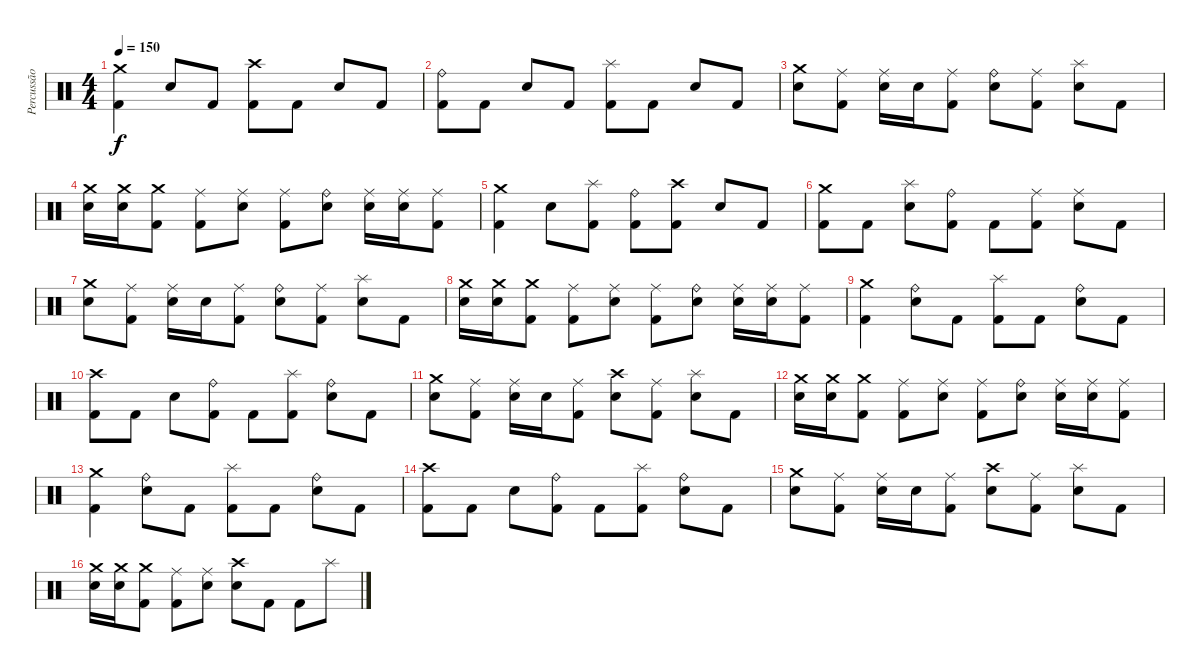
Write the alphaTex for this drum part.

\track ("Percussão" "Percussão") {instrument percussion}
\staff {score}
\articulation defaults
\ts (4 4)
\tempo 150
\clef neutral
\ks c
("Kick (hit) 2" "Crash medium (hit)").4{dy f} "Snare (hit) 2".8 "Kick (hit) 2".8 ("Kick (hit) 2" "Crash high (hit)").8 "Kick (hit) 2".8 "Snare (hit) 2".8 "Kick (hit) 2".8 |
("Kick (hit) 2" "Ride (bell)").8 "Kick (hit) 2".8 "Snare (hit) 2".8 "Kick (hit) 2".8 ("Kick (hit) 2" "Splash (hit)").8 "Kick (hit) 2".8 "Snare (hit) 2".8 "Kick (hit) 2".8 |
("Snare (hit) 2" "Crash medium (hit)").8 ("Kick (hit) 2" "Ride (middle)").8 ("Snare (hit) 2" "Ride (middle)").16 "Snare (hit) 2".16 ("Kick (hit) 2" "Ride (middle)").8 ("Snare (hit) 2" "Ride (bell)").8 ("Kick (hit) 2" "Ride (middle)").8 ("Snare (hit) 2" "Splash (hit)").8 "Kick (hit) 2".8 |
("Snare (hit) 2" "Crash medium (hit)").16 ("Snare (hit) 2" "Crash medium (hit)").16 ("Kick (hit) 2" "Crash medium (hit)").8 ("Kick (hit) 2" "Ride (middle)").8 ("Snare (hit) 2" "Ride (middle)").8 ("Kick (hit) 2" "Ride (middle)").8 ("Snare (hit) 2" "Ride (bell)").8 ("Snare (hit) 2" "Ride (middle)").16 ("Snare (hit) 2" "Ride (middle)").16 ("Kick (hit) 2" "Ride (middle)").8 |
("Kick (hit) 2" "Crash medium (hit)").4 "Snare (hit) 2".8 ("Kick (hit) 2" "Splash (hit)").8 ("Kick (hit) 2" "Ride (bell)").8 ("Kick (hit) 2" "Crash high (hit)").8 "Snare (hit) 2".8 "Kick (hit) 2".8 |
("Kick (hit) 2" "Crash medium (hit)").8 "Kick (hit) 2".8 ("Snare (hit) 2" "Splash (hit)").8 ("Kick (hit) 2" "Ride (bell)").8 "Kick (hit) 2".8 ("Kick (hit) 2" "Ride (middle)").8 ("Snare (hit) 2" "Ride (middle)").8 "Kick (hit) 2".8 |
("Snare (hit) 2" "Crash medium (hit)").8 ("Kick (hit) 2" "Ride (middle)").8 ("Snare (hit) 2" "Ride (middle)").16 "Snare (hit) 2".16 ("Kick (hit) 2" "Ride (middle)").8 ("Snare (hit) 2" "Ride (bell)").8 ("Kick (hit) 2" "Ride (middle)").8 ("Snare (hit) 2" "Splash (hit)").8 "Kick (hit) 2".8 |
("Snare (hit) 2" "Crash medium (hit)").16 ("Snare (hit) 2" "Crash medium (hit)").16 ("Kick (hit) 2" "Crash medium (hit)").8 ("Kick (hit) 2" "Ride (middle)").8 ("Snare (hit) 2" "Ride (middle)").8 ("Kick (hit) 2" "Ride (middle)").8 ("Snare (hit) 2" "Ride (bell)").8 ("Snare (hit) 2" "Ride (middle)").16 ("Snare (hit) 2" "Ride (middle)").16 ("Kick (hit) 2" "Ride (middle)").8 |
("Kick (hit) 2" "Crash medium (hit)").4 ("Snare (hit) 2" "Ride (bell)").8 "Kick (hit) 2".8 ("Kick (hit) 2" "Splash (hit)").8 "Kick (hit) 2".8 ("Snare (hit) 2" "Ride (bell)").8 "Kick (hit) 2".8 |
("Kick (hit) 2" "Crash high (hit)").8 "Kick (hit) 2".8 "Snare (hit) 2".8 ("Kick (hit) 2" "Ride (bell)").8 "Kick (hit) 2".8 ("Kick (hit) 2" "Splash (hit)").8 ("Snare (hit) 2" "Ride (bell)").8 "Kick (hit) 2".8 |
("Snare (hit) 2" "Crash medium (hit)").8 ("Kick (hit) 2" "Ride (middle)").8 ("Snare (hit) 2" "Ride (middle)").16 "Snare (hit) 2".16 ("Kick (hit) 2" "Ride (middle)").8 ("Snare (hit) 2" "Crash high (hit)").8 ("Kick (hit) 2" "Ride (middle)").8 ("Snare (hit) 2" "Splash (hit)").8 "Kick (hit) 2".8 |
("Snare (hit) 2" "Crash medium (hit)").16 ("Snare (hit) 2" "Crash medium (hit)").16 ("Kick (hit) 2" "Crash medium (hit)").8 ("Kick (hit) 2" "Ride (middle)").8 ("Snare (hit) 2" "Ride (middle)").8 ("Kick (hit) 2" "Ride (middle)").8 ("Snare (hit) 2" "Ride (bell)").8 ("Snare (hit) 2" "Ride (middle)").16 ("Snare (hit) 2" "Ride (middle)").16 ("Kick (hit) 2" "Ride (middle)").8 |
("Kick (hit) 2" "Crash medium (hit)").4 ("Snare (hit) 2" "Ride (bell)").8 "Kick (hit) 2".8 ("Kick (hit) 2" "Splash (hit)").8 "Kick (hit) 2".8 ("Snare (hit) 2" "Ride (bell)").8 "Kick (hit) 2".8 |
("Kick (hit) 2" "Crash high (hit)").8 "Kick (hit) 2".8 "Snare (hit) 2".8 ("Kick (hit) 2" "Ride (bell)").8 "Kick (hit) 2".8 ("Kick (hit) 2" "Splash (hit)").8 ("Snare (hit) 2" "Ride (bell)").8 "Kick (hit) 2".8 |
("Snare (hit) 2" "Crash medium (hit)").8 ("Kick (hit) 2" "Ride (middle)").8 ("Snare (hit) 2" "Ride (middle)").16 "Snare (hit) 2".16 ("Kick (hit) 2" "Ride (middle)").8 ("Snare (hit) 2" "Crash high (hit)").8 ("Kick (hit) 2" "Ride (middle)").8 ("Snare (hit) 2" "Splash (hit)").8 "Kick (hit) 2".8 |
("Snare (hit) 2" "Crash medium (hit)").16 ("Snare (hit) 2" "Crash medium (hit)").16 ("Kick (hit) 2" "Crash medium (hit)").8 ("Kick (hit) 2" "Ride (middle)").8 ("Snare (hit) 2" "Ride (middle)").8 ("Snare (hit) 2" "Crash high (hit)").8 "Kick (hit) 2".8 "Kick (hit) 2".8 "Splash (hit)".8
